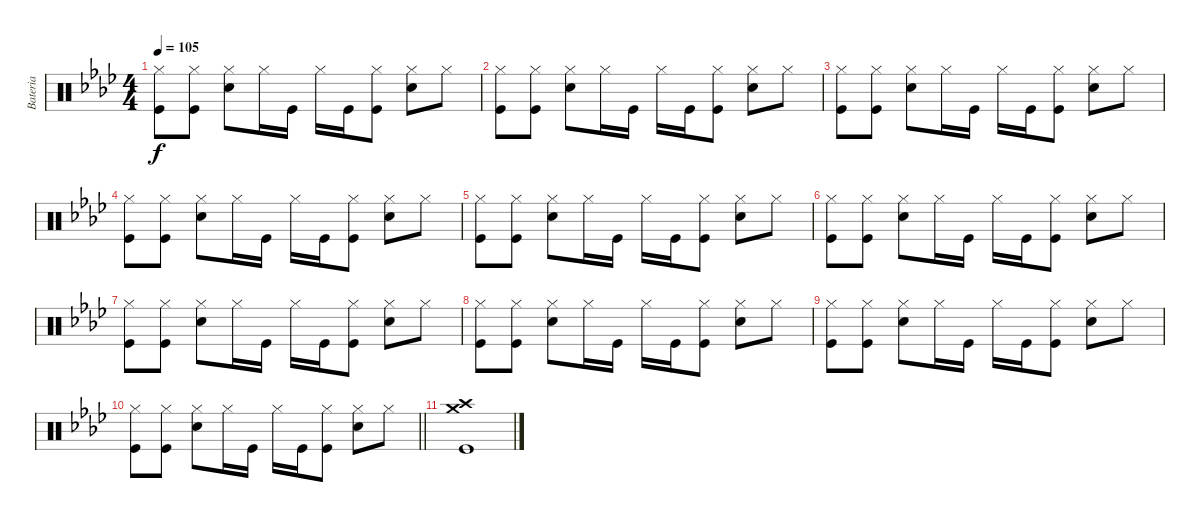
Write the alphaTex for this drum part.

\track ("Bateria" "Bateria") {instrument percussion}
\staff {score}
\articulation defaults
\ts (4 4)
\tempo 105
\clef neutral
\ks fminor
("Hi-Hat (closed)" "Kick (hit)").8{dy f} ("Hi-Hat (closed)" "Kick (hit)").8 ("Hi-Hat (closed)" "Electric Snare (hit)").8 "Hi-Hat (closed)".16 "Kick (hit)".16 "Hi-Hat (closed)".16 "Kick (hit)".16 ("Hi-Hat (closed)" "Kick (hit)").8 ("Hi-Hat (closed)" "Electric Snare (hit)").8 "Hi-Hat (closed)".8 |
("Hi-Hat (closed)" "Kick (hit)").8 ("Hi-Hat (closed)" "Kick (hit)").8 ("Hi-Hat (closed)" "Electric Snare (hit)").8 "Hi-Hat (closed)".16 "Kick (hit)".16 "Hi-Hat (closed)".16 "Kick (hit)".16 ("Hi-Hat (closed)" "Kick (hit)").8 ("Hi-Hat (closed)" "Electric Snare (hit)").8 "Hi-Hat (closed)".8 |
("Hi-Hat (closed)" "Kick (hit)").8 ("Hi-Hat (closed)" "Kick (hit)").8 ("Hi-Hat (closed)" "Electric Snare (hit)").8 "Hi-Hat (closed)".16 "Kick (hit)".16 "Hi-Hat (closed)".16 "Kick (hit)".16 ("Hi-Hat (closed)" "Kick (hit)").8 ("Hi-Hat (closed)" "Electric Snare (hit)").8 "Hi-Hat (closed)".8 |
("Hi-Hat (closed)" "Kick (hit)").8 ("Hi-Hat (closed)" "Kick (hit)").8 ("Hi-Hat (closed)" "Electric Snare (hit)").8 "Hi-Hat (closed)".16 "Kick (hit)".16 "Hi-Hat (closed)".16 "Kick (hit)".16 ("Hi-Hat (closed)" "Kick (hit)").8 ("Hi-Hat (closed)" "Electric Snare (hit)").8 "Hi-Hat (closed)".8 |
("Hi-Hat (closed)" "Kick (hit)").8 ("Hi-Hat (closed)" "Kick (hit)").8 ("Hi-Hat (closed)" "Electric Snare (hit)").8 "Hi-Hat (closed)".16 "Kick (hit)".16 "Hi-Hat (closed)".16 "Kick (hit)".16 ("Hi-Hat (closed)" "Kick (hit)").8 ("Hi-Hat (closed)" "Electric Snare (hit)").8 "Hi-Hat (closed)".8 |
("Hi-Hat (closed)" "Kick (hit)").8 ("Hi-Hat (closed)" "Kick (hit)").8 ("Hi-Hat (closed)" "Electric Snare (hit)").8 "Hi-Hat (closed)".16 "Kick (hit)".16 "Hi-Hat (closed)".16 "Kick (hit)".16 ("Hi-Hat (closed)" "Kick (hit)").8 ("Hi-Hat (closed)" "Electric Snare (hit)").8 "Hi-Hat (closed)".8 |
("Hi-Hat (closed)" "Kick (hit)").8 ("Hi-Hat (closed)" "Kick (hit)").8 ("Hi-Hat (closed)" "Electric Snare (hit)").8 "Hi-Hat (closed)".16 "Kick (hit)".16 "Hi-Hat (closed)".16 "Kick (hit)".16 ("Hi-Hat (closed)" "Kick (hit)").8 ("Hi-Hat (closed)" "Electric Snare (hit)").8 "Hi-Hat (closed)".8 |
("Hi-Hat (closed)" "Kick (hit)").8 ("Hi-Hat (closed)" "Kick (hit)").8 ("Hi-Hat (closed)" "Electric Snare (hit)").8 "Hi-Hat (closed)".16 "Kick (hit)".16 "Hi-Hat (closed)".16 "Kick (hit)".16 ("Hi-Hat (closed)" "Kick (hit)").8 ("Hi-Hat (closed)" "Electric Snare (hit)").8 "Hi-Hat (closed)".8 |
("Hi-Hat (closed)" "Kick (hit)").8 ("Hi-Hat (closed)" "Kick (hit)").8 ("Hi-Hat (closed)" "Electric Snare (hit)").8 "Hi-Hat (closed)".16 "Kick (hit)".16 "Hi-Hat (closed)".16 "Kick (hit)".16 ("Hi-Hat (closed)" "Kick (hit)").8 ("Hi-Hat (closed)" "Electric Snare (hit)").8 "Hi-Hat (closed)".8 |
\barLineRight lightlight
("Hi-Hat (closed)" "Kick (hit)").8 ("Hi-Hat (closed)" "Kick (hit)").8 ("Hi-Hat (closed)" "Electric Snare (hit)").8 "Hi-Hat (closed)".16 "Kick (hit)".16 "Hi-Hat (closed)".16 "Kick (hit)".16 ("Hi-Hat (closed)" "Kick (hit)").8 ("Hi-Hat (closed)" "Electric Snare (hit)").8 "Hi-Hat (closed)".8 |
("Crash high (hit)" "Crash medium (hit)" "Kick (hit)").1
